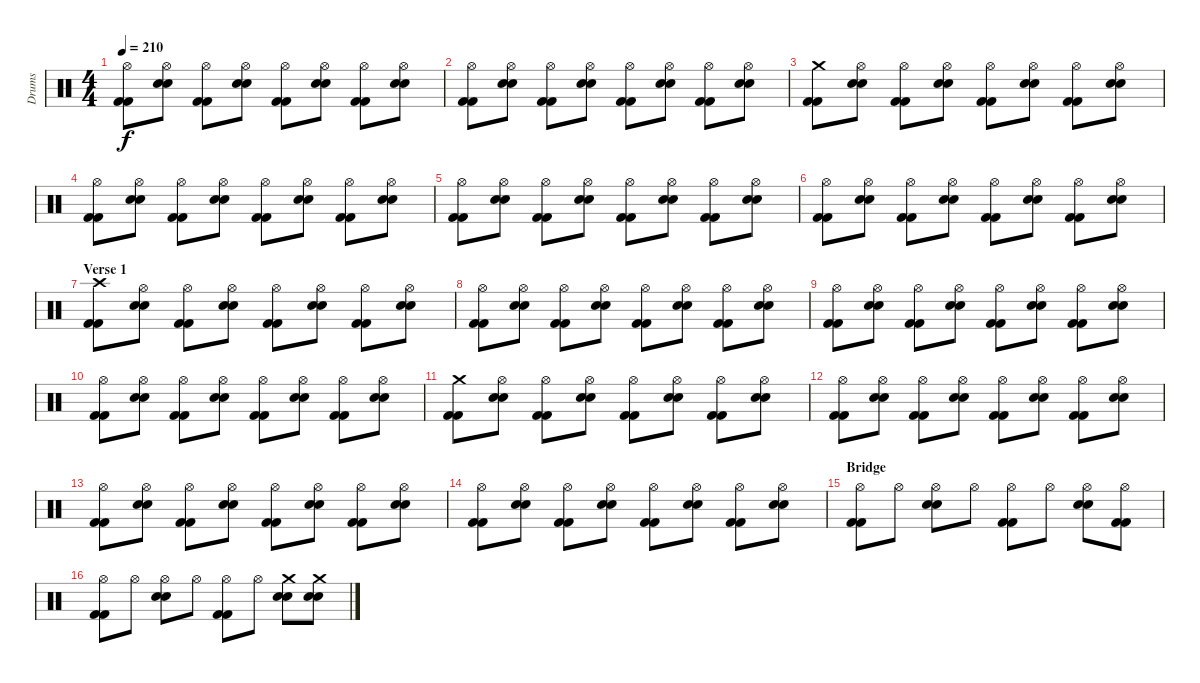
\track ("Drums" "Drums") {instrument percussion}
\staff {score}
\articulation defaults
\ts (4 4)
\tempo 210
\clef neutral
\ks c
("Hi-Hat (open)" "Kick (hit) 2" "Kick (hit) 2").8{dy f} ("Hi-Hat (open)" "Snare (hit) 2" "Snare (hit) 2").8 ("Hi-Hat (open)" "Kick (hit) 2" "Kick (hit) 2").8 ("Hi-Hat (open)" "Snare (hit) 2" "Snare (hit) 2").8 ("Hi-Hat (open)" "Kick (hit) 2" "Kick (hit) 2").8 ("Hi-Hat (open)" "Snare (hit) 2" "Snare (hit) 2").8 ("Hi-Hat (open)" "Kick (hit) 2" "Kick (hit) 2").8 ("Hi-Hat (open)" "Snare (hit) 2" "Snare (hit) 2").8 |
("Hi-Hat (open)" "Kick (hit) 2" "Kick (hit) 2").8 ("Hi-Hat (open)" "Snare (hit) 2" "Snare (hit) 2").8 ("Hi-Hat (open)" "Kick (hit) 2" "Kick (hit) 2").8 ("Hi-Hat (open)" "Snare (hit) 2" "Snare (hit) 2").8 ("Hi-Hat (open)" "Kick (hit) 2" "Kick (hit) 2").8 ("Hi-Hat (open)" "Snare (hit) 2" "Snare (hit) 2").8 ("Hi-Hat (open)" "Kick (hit) 2" "Kick (hit) 2").8 ("Hi-Hat (open)" "Snare (hit) 2" "Snare (hit) 2").8 |
("Crash medium (hit)" "Kick (hit) 2" "Kick (hit) 2").8 ("Hi-Hat (open)" "Snare (hit) 2" "Snare (hit) 2").8 ("Hi-Hat (open)" "Kick (hit) 2" "Kick (hit) 2").8 ("Hi-Hat (open)" "Snare (hit) 2" "Snare (hit) 2").8 ("Hi-Hat (open)" "Kick (hit) 2" "Kick (hit) 2").8 ("Hi-Hat (open)" "Snare (hit) 2" "Snare (hit) 2").8 ("Hi-Hat (open)" "Kick (hit) 2" "Kick (hit) 2").8 ("Hi-Hat (open)" "Snare (hit) 2" "Snare (hit) 2").8 |
("Hi-Hat (open)" "Kick (hit) 2" "Kick (hit) 2").8 ("Hi-Hat (open)" "Snare (hit) 2" "Snare (hit) 2").8 ("Hi-Hat (open)" "Kick (hit) 2" "Kick (hit) 2").8 ("Hi-Hat (open)" "Snare (hit) 2" "Snare (hit) 2").8 ("Hi-Hat (open)" "Kick (hit) 2" "Kick (hit) 2").8 ("Hi-Hat (open)" "Snare (hit) 2" "Snare (hit) 2").8 ("Hi-Hat (open)" "Kick (hit) 2" "Kick (hit) 2").8 ("Hi-Hat (open)" "Snare (hit) 2" "Snare (hit) 2").8 |
("Hi-Hat (open)" "Kick (hit) 2" "Kick (hit) 2").8 ("Hi-Hat (open)" "Snare (hit) 2" "Snare (hit) 2").8 ("Hi-Hat (open)" "Kick (hit) 2" "Kick (hit) 2").8 ("Hi-Hat (open)" "Snare (hit) 2" "Snare (hit) 2").8 ("Hi-Hat (open)" "Kick (hit) 2" "Kick (hit) 2").8 ("Hi-Hat (open)" "Snare (hit) 2" "Snare (hit) 2").8 ("Hi-Hat (open)" "Kick (hit) 2" "Kick (hit) 2").8 ("Hi-Hat (open)" "Snare (hit) 2" "Snare (hit) 2").8 |
("Hi-Hat (open)" "Kick (hit) 2" "Kick (hit) 2").8 ("Hi-Hat (open)" "Snare (hit) 2" "Snare (hit) 2").8 ("Hi-Hat (open)" "Kick (hit) 2" "Kick (hit) 2").8 ("Hi-Hat (open)" "Snare (hit) 2" "Snare (hit) 2").8 ("Hi-Hat (open)" "Kick (hit) 2" "Kick (hit) 2").8 ("Hi-Hat (open)" "Snare (hit) 2" "Snare (hit) 2").8 ("Hi-Hat (open)" "Kick (hit) 2" "Kick (hit) 2").8 ("Hi-Hat (open)" "Snare (hit) 2" "Snare (hit) 2").8 |
\section ("" "Verse 1")
("Crash high (hit)" "Kick (hit) 2" "Kick (hit) 2").8 ("Hi-Hat (open)" "Snare (hit) 2" "Snare (hit) 2").8 ("Hi-Hat (open)" "Kick (hit) 2" "Kick (hit) 2").8 ("Hi-Hat (open)" "Snare (hit) 2" "Snare (hit) 2").8 ("Hi-Hat (open)" "Kick (hit) 2" "Kick (hit) 2").8 ("Hi-Hat (open)" "Snare (hit) 2" "Snare (hit) 2").8 ("Hi-Hat (open)" "Kick (hit) 2" "Kick (hit) 2").8 ("Hi-Hat (open)" "Snare (hit) 2" "Snare (hit) 2").8 |
("Hi-Hat (open)" "Kick (hit) 2" "Kick (hit) 2").8 ("Hi-Hat (open)" "Snare (hit) 2" "Snare (hit) 2").8 ("Hi-Hat (open)" "Kick (hit) 2" "Kick (hit) 2").8 ("Hi-Hat (open)" "Snare (hit) 2" "Snare (hit) 2").8 ("Hi-Hat (open)" "Kick (hit) 2" "Kick (hit) 2").8 ("Hi-Hat (open)" "Snare (hit) 2" "Snare (hit) 2").8 ("Hi-Hat (open)" "Kick (hit) 2" "Kick (hit) 2").8 ("Hi-Hat (open)" "Snare (hit) 2" "Snare (hit) 2").8 |
("Hi-Hat (open)" "Kick (hit) 2" "Kick (hit) 2").8 ("Hi-Hat (open)" "Snare (hit) 2" "Snare (hit) 2").8 ("Hi-Hat (open)" "Kick (hit) 2" "Kick (hit) 2").8 ("Hi-Hat (open)" "Snare (hit) 2" "Snare (hit) 2").8 ("Hi-Hat (open)" "Kick (hit) 2" "Kick (hit) 2").8 ("Hi-Hat (open)" "Snare (hit) 2" "Snare (hit) 2").8 ("Hi-Hat (open)" "Kick (hit) 2" "Kick (hit) 2").8 ("Hi-Hat (open)" "Snare (hit) 2" "Snare (hit) 2").8 |
("Hi-Hat (open)" "Kick (hit) 2" "Kick (hit) 2").8 ("Hi-Hat (open)" "Snare (hit) 2" "Snare (hit) 2").8 ("Hi-Hat (open)" "Kick (hit) 2" "Kick (hit) 2").8 ("Hi-Hat (open)" "Snare (hit) 2" "Snare (hit) 2").8 ("Hi-Hat (open)" "Kick (hit) 2" "Kick (hit) 2").8 ("Hi-Hat (open)" "Snare (hit) 2" "Snare (hit) 2").8 ("Hi-Hat (open)" "Kick (hit) 2" "Kick (hit) 2").8 ("Hi-Hat (open)" "Snare (hit) 2" "Snare (hit) 2").8 |
("Crash medium (hit)" "Kick (hit) 2" "Kick (hit) 2").8 ("Hi-Hat (open)" "Snare (hit) 2" "Snare (hit) 2").8 ("Hi-Hat (open)" "Kick (hit) 2" "Kick (hit) 2").8 ("Hi-Hat (open)" "Snare (hit) 2" "Snare (hit) 2").8 ("Hi-Hat (open)" "Kick (hit) 2" "Kick (hit) 2").8 ("Hi-Hat (open)" "Snare (hit) 2" "Snare (hit) 2").8 ("Hi-Hat (open)" "Kick (hit) 2" "Kick (hit) 2").8 ("Hi-Hat (open)" "Snare (hit) 2" "Snare (hit) 2").8 |
("Hi-Hat (open)" "Kick (hit) 2" "Kick (hit) 2").8 ("Hi-Hat (open)" "Snare (hit) 2" "Snare (hit) 2").8 ("Hi-Hat (open)" "Kick (hit) 2" "Kick (hit) 2").8 ("Hi-Hat (open)" "Snare (hit) 2" "Snare (hit) 2").8 ("Hi-Hat (open)" "Kick (hit) 2" "Kick (hit) 2").8 ("Hi-Hat (open)" "Snare (hit) 2" "Snare (hit) 2").8 ("Hi-Hat (open)" "Kick (hit) 2" "Kick (hit) 2").8 ("Hi-Hat (open)" "Snare (hit) 2" "Snare (hit) 2").8 |
("Hi-Hat (open)" "Kick (hit) 2" "Kick (hit) 2").8 ("Hi-Hat (open)" "Snare (hit) 2" "Snare (hit) 2").8 ("Hi-Hat (open)" "Kick (hit) 2" "Kick (hit) 2").8 ("Hi-Hat (open)" "Snare (hit) 2" "Snare (hit) 2").8 ("Hi-Hat (open)" "Kick (hit) 2" "Kick (hit) 2").8 ("Hi-Hat (open)" "Snare (hit) 2" "Snare (hit) 2").8 ("Hi-Hat (open)" "Kick (hit) 2" "Kick (hit) 2").8 ("Hi-Hat (open)" "Snare (hit) 2" "Snare (hit) 2").8 |
("Hi-Hat (open)" "Kick (hit) 2" "Kick (hit) 2").8 ("Hi-Hat (open)" "Snare (hit) 2" "Snare (hit) 2").8 ("Hi-Hat (open)" "Kick (hit) 2" "Kick (hit) 2").8 ("Hi-Hat (open)" "Snare (hit) 2" "Snare (hit) 2").8 ("Hi-Hat (open)" "Kick (hit) 2" "Kick (hit) 2").8 ("Hi-Hat (open)" "Snare (hit) 2" "Snare (hit) 2").8 ("Hi-Hat (open)" "Kick (hit) 2" "Kick (hit) 2").8 ("Hi-Hat (open)" "Snare (hit) 2" "Snare (hit) 2").8 |
\section ("" "Bridge")
("Hi-Hat (open)" "Kick (hit) 2" "Kick (hit) 2").8 "Hi-Hat (open)".8 ("Hi-Hat (open)" "Snare (hit) 2" "Snare (hit) 2").8 "Hi-Hat (open)".8 ("Hi-Hat (open)" "Kick (hit) 2" "Kick (hit) 2").8 "Hi-Hat (open)".8 ("Hi-Hat (open)" "Snare (hit) 2" "Snare (hit) 2").8 ("Hi-Hat (open)" "Kick (hit) 2" "Kick (hit) 2").8 |
("Hi-Hat (open)" "Kick (hit) 2" "Kick (hit) 2").8 "Hi-Hat (open)".8 ("Hi-Hat (open)" "Snare (hit) 2" "Snare (hit) 2").8 "Hi-Hat (open)".8 ("Hi-Hat (open)" "Kick (hit) 2" "Kick (hit) 2").8 "Hi-Hat (open)".8 ("Crash medium (hit)" "Snare (hit) 2" "Snare (hit) 2").8 ("Crash medium (hit)" "Snare (hit) 2" "Snare (hit) 2").8
